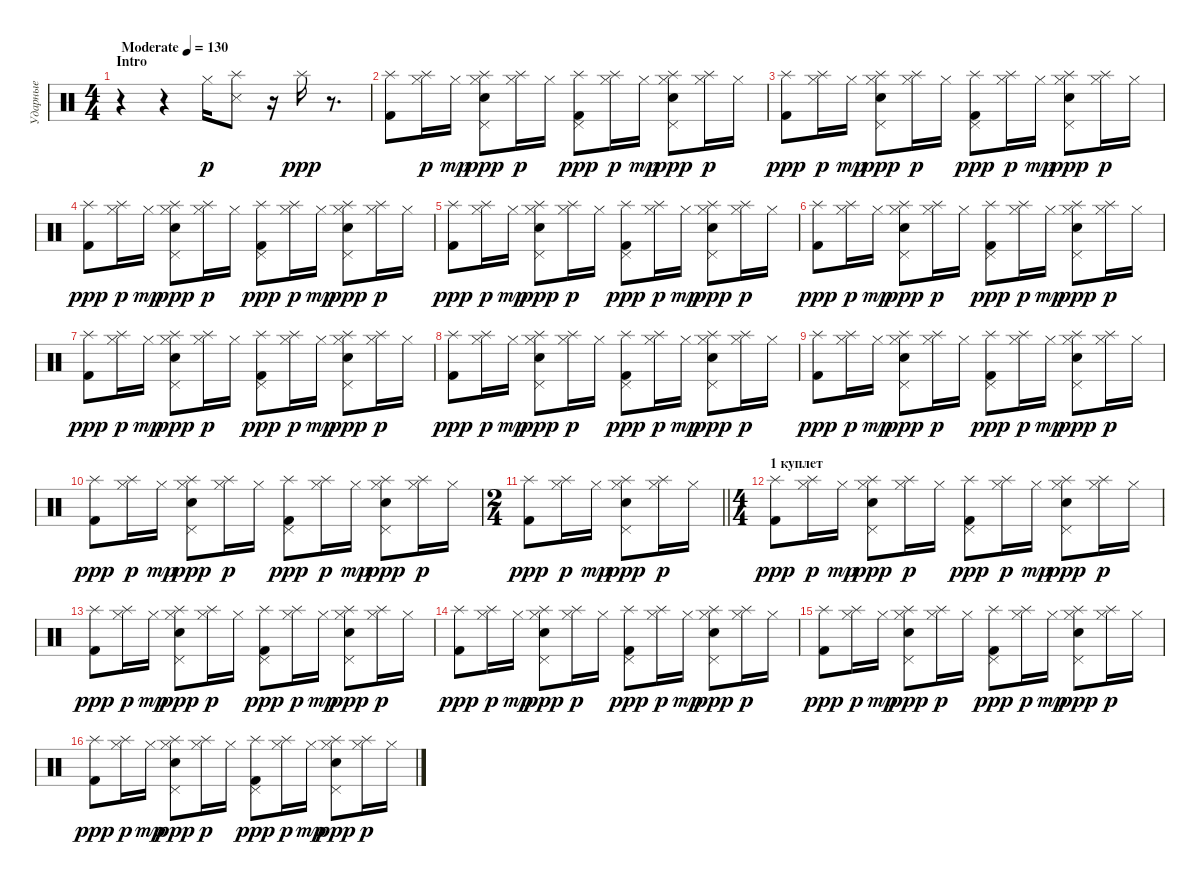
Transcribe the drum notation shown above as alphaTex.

\track ("Ударные" "Ударные") {instrument percussion bank 17}
\staff {score}
\articulation defaults
\ts (4 4)
\section ("" "Intro")
\tempo (130 "Moderate")
\clef neutral
\ks c
r.4{dy p} r.4 "Hi-Hat (closed)".16 ("Snare (side stick) 3" "Splash (hit)").8 r.16 "Splash (hit)".16{dy ppp} r.8{d} |
("Kick (hit) 2" "Splash (hit)").8 ("Hi-Hat (closed)" "Splash (hit)").16{dy p} "Hi-Hat (closed)".16{dy mp} ("Snare (hit) 2" "Pedal Hi-Hat (hit)" "Hi-Hat (closed)" "Splash (hit)").8{dy ppp} ("Hi-Hat (closed)" "Splash (hit)").16{dy p} "Hi-Hat (closed)".16 ("Kick (hit) 2" "Pedal Hi-Hat (hit)" "Splash (hit)").8{dy ppp} ("Hi-Hat (closed)" "Splash (hit)").16{dy p} "Hi-Hat (closed)".16{dy mp} ("Snare (hit) 2" "Pedal Hi-Hat (hit)" "Hi-Hat (closed)" "Splash (hit)").8{dy ppp} ("Hi-Hat (closed)" "Splash (hit)").16{dy p} "Hi-Hat (closed)".16 |
("Kick (hit) 2" "Splash (hit)").8{dy ppp} ("Hi-Hat (closed)" "Splash (hit)").16{dy p} "Hi-Hat (closed)".16{dy mp} ("Snare (hit) 2" "Pedal Hi-Hat (hit)" "Hi-Hat (closed)" "Splash (hit)").8{dy ppp} ("Hi-Hat (closed)" "Splash (hit)").16{dy p} "Hi-Hat (closed)".16 ("Kick (hit) 2" "Pedal Hi-Hat (hit)" "Splash (hit)").8{dy ppp} ("Hi-Hat (closed)" "Splash (hit)").16{dy p} "Hi-Hat (closed)".16{dy mp} ("Snare (hit) 2" "Pedal Hi-Hat (hit)" "Hi-Hat (closed)" "Splash (hit)").8{dy ppp} ("Hi-Hat (closed)" "Splash (hit)").16{dy p} "Hi-Hat (closed)".16 |
("Kick (hit) 2" "Splash (hit)").8{dy ppp} ("Hi-Hat (closed)" "Splash (hit)").16{dy p} "Hi-Hat (closed)".16{dy mp} ("Snare (hit) 2" "Pedal Hi-Hat (hit)" "Hi-Hat (closed)" "Splash (hit)").8{dy ppp} ("Hi-Hat (closed)" "Splash (hit)").16{dy p} "Hi-Hat (closed)".16 ("Kick (hit) 2" "Pedal Hi-Hat (hit)" "Splash (hit)").8{dy ppp} ("Hi-Hat (closed)" "Splash (hit)").16{dy p} "Hi-Hat (closed)".16{dy mp} ("Snare (hit) 2" "Pedal Hi-Hat (hit)" "Hi-Hat (closed)" "Splash (hit)").8{dy ppp} ("Hi-Hat (closed)" "Splash (hit)").16{dy p} "Hi-Hat (closed)".16 |
("Kick (hit) 2" "Splash (hit)").8{dy ppp} ("Hi-Hat (closed)" "Splash (hit)").16{dy p} "Hi-Hat (closed)".16{dy mp} ("Snare (hit) 2" "Pedal Hi-Hat (hit)" "Hi-Hat (closed)" "Splash (hit)").8{dy ppp} ("Hi-Hat (closed)" "Splash (hit)").16{dy p} "Hi-Hat (closed)".16 ("Kick (hit) 2" "Pedal Hi-Hat (hit)" "Splash (hit)").8{dy ppp} ("Hi-Hat (closed)" "Splash (hit)").16{dy p} "Hi-Hat (closed)".16{dy mp} ("Snare (hit) 2" "Pedal Hi-Hat (hit)" "Hi-Hat (closed)" "Splash (hit)").8{dy ppp} ("Hi-Hat (closed)" "Splash (hit)").16{dy p} "Hi-Hat (closed)".16 |
("Kick (hit) 2" "Splash (hit)").8{dy ppp} ("Hi-Hat (closed)" "Splash (hit)").16{dy p} "Hi-Hat (closed)".16{dy mp} ("Snare (hit) 2" "Pedal Hi-Hat (hit)" "Hi-Hat (closed)" "Splash (hit)").8{dy ppp} ("Hi-Hat (closed)" "Splash (hit)").16{dy p} "Hi-Hat (closed)".16 ("Kick (hit) 2" "Pedal Hi-Hat (hit)" "Splash (hit)").8{dy ppp} ("Hi-Hat (closed)" "Splash (hit)").16{dy p} "Hi-Hat (closed)".16{dy mp} ("Snare (hit) 2" "Pedal Hi-Hat (hit)" "Hi-Hat (closed)" "Splash (hit)").8{dy ppp} ("Hi-Hat (closed)" "Splash (hit)").16{dy p} "Hi-Hat (closed)".16 |
("Kick (hit) 2" "Splash (hit)").8{dy ppp} ("Hi-Hat (closed)" "Splash (hit)").16{dy p} "Hi-Hat (closed)".16{dy mp} ("Snare (hit) 2" "Pedal Hi-Hat (hit)" "Hi-Hat (closed)" "Splash (hit)").8{dy ppp} ("Hi-Hat (closed)" "Splash (hit)").16{dy p} "Hi-Hat (closed)".16 ("Kick (hit) 2" "Pedal Hi-Hat (hit)" "Splash (hit)").8{dy ppp} ("Hi-Hat (closed)" "Splash (hit)").16{dy p} "Hi-Hat (closed)".16{dy mp} ("Snare (hit) 2" "Pedal Hi-Hat (hit)" "Hi-Hat (closed)" "Splash (hit)").8{dy ppp} ("Hi-Hat (closed)" "Splash (hit)").16{dy p} "Hi-Hat (closed)".16 |
("Kick (hit) 2" "Splash (hit)").8{dy ppp} ("Hi-Hat (closed)" "Splash (hit)").16{dy p} "Hi-Hat (closed)".16{dy mp} ("Snare (hit) 2" "Pedal Hi-Hat (hit)" "Hi-Hat (closed)" "Splash (hit)").8{dy ppp} ("Hi-Hat (closed)" "Splash (hit)").16{dy p} "Hi-Hat (closed)".16 ("Kick (hit) 2" "Pedal Hi-Hat (hit)" "Splash (hit)").8{dy ppp} ("Hi-Hat (closed)" "Splash (hit)").16{dy p} "Hi-Hat (closed)".16{dy mp} ("Snare (hit) 2" "Pedal Hi-Hat (hit)" "Hi-Hat (closed)" "Splash (hit)").8{dy ppp} ("Hi-Hat (closed)" "Splash (hit)").16{dy p} "Hi-Hat (closed)".16 |
("Kick (hit) 2" "Splash (hit)").8{dy ppp} ("Hi-Hat (closed)" "Splash (hit)").16{dy p} "Hi-Hat (closed)".16{dy mp} ("Snare (hit) 2" "Pedal Hi-Hat (hit)" "Hi-Hat (closed)" "Splash (hit)").8{dy ppp} ("Hi-Hat (closed)" "Splash (hit)").16{dy p} "Hi-Hat (closed)".16 ("Kick (hit) 2" "Pedal Hi-Hat (hit)" "Splash (hit)").8{dy ppp} ("Hi-Hat (closed)" "Splash (hit)").16{dy p} "Hi-Hat (closed)".16{dy mp} ("Snare (hit) 2" "Pedal Hi-Hat (hit)" "Hi-Hat (closed)" "Splash (hit)").8{dy ppp} ("Hi-Hat (closed)" "Splash (hit)").16{dy p} "Hi-Hat (closed)".16 |
("Kick (hit) 2" "Splash (hit)").8{dy ppp} ("Hi-Hat (closed)" "Splash (hit)").16{dy p} "Hi-Hat (closed)".16{dy mp} ("Snare (hit) 2" "Pedal Hi-Hat (hit)" "Hi-Hat (closed)" "Splash (hit)").8{dy ppp} ("Hi-Hat (closed)" "Splash (hit)").16{dy p} "Hi-Hat (closed)".16 ("Kick (hit) 2" "Pedal Hi-Hat (hit)" "Splash (hit)").8{dy ppp} ("Hi-Hat (closed)" "Splash (hit)").16{dy p} "Hi-Hat (closed)".16{dy mp} ("Snare (hit) 2" "Pedal Hi-Hat (hit)" "Hi-Hat (closed)" "Splash (hit)").8{dy ppp} ("Hi-Hat (closed)" "Splash (hit)").16{dy p} "Hi-Hat (closed)".16 |
\ts (2 4)
\barLineRight lightlight
("Kick (hit) 2" "Splash (hit)").8{dy ppp} ("Hi-Hat (closed)" "Splash (hit)").16{dy p} "Hi-Hat (closed)".16{dy mp} ("Snare (hit) 2" "Pedal Hi-Hat (hit)" "Hi-Hat (closed)" "Splash (hit)").8{dy ppp} ("Hi-Hat (closed)" "Splash (hit)").16{dy p} "Hi-Hat (closed)".16 |
\ts (4 4)
\section ("" "1 куплет")
("Kick (hit) 2" "Splash (hit)").8{dy ppp} ("Hi-Hat (closed)" "Splash (hit)").16{dy p} "Hi-Hat (closed)".16{dy mp} ("Snare (hit) 2" "Pedal Hi-Hat (hit)" "Hi-Hat (closed)" "Splash (hit)").8{dy ppp} ("Hi-Hat (closed)" "Splash (hit)").16{dy p} "Hi-Hat (closed)".16 ("Kick (hit) 2" "Pedal Hi-Hat (hit)" "Splash (hit)").8{dy ppp} ("Hi-Hat (closed)" "Splash (hit)").16{dy p} "Hi-Hat (closed)".16{dy mp} ("Snare (hit) 2" "Pedal Hi-Hat (hit)" "Hi-Hat (closed)" "Splash (hit)").8{dy ppp} ("Hi-Hat (closed)" "Splash (hit)").16{dy p} "Hi-Hat (closed)".16 |
("Kick (hit) 2" "Splash (hit)").8{dy ppp} ("Hi-Hat (closed)" "Splash (hit)").16{dy p} "Hi-Hat (closed)".16{dy mp} ("Snare (hit) 2" "Pedal Hi-Hat (hit)" "Hi-Hat (closed)" "Splash (hit)").8{dy ppp} ("Hi-Hat (closed)" "Splash (hit)").16{dy p} "Hi-Hat (closed)".16 ("Kick (hit) 2" "Pedal Hi-Hat (hit)" "Splash (hit)").8{dy ppp} ("Hi-Hat (closed)" "Splash (hit)").16{dy p} "Hi-Hat (closed)".16{dy mp} ("Snare (hit) 2" "Pedal Hi-Hat (hit)" "Hi-Hat (closed)" "Splash (hit)").8{dy ppp} ("Hi-Hat (closed)" "Splash (hit)").16{dy p} "Hi-Hat (closed)".16 |
("Kick (hit) 2" "Splash (hit)").8{dy ppp} ("Hi-Hat (closed)" "Splash (hit)").16{dy p} "Hi-Hat (closed)".16{dy mp} ("Snare (hit) 2" "Pedal Hi-Hat (hit)" "Hi-Hat (closed)" "Splash (hit)").8{dy ppp} ("Hi-Hat (closed)" "Splash (hit)").16{dy p} "Hi-Hat (closed)".16 ("Kick (hit) 2" "Pedal Hi-Hat (hit)" "Splash (hit)").8{dy ppp} ("Hi-Hat (closed)" "Splash (hit)").16{dy p} "Hi-Hat (closed)".16{dy mp} ("Snare (hit) 2" "Pedal Hi-Hat (hit)" "Hi-Hat (closed)" "Splash (hit)").8{dy ppp} ("Hi-Hat (closed)" "Splash (hit)").16{dy p} "Hi-Hat (closed)".16 |
("Kick (hit) 2" "Splash (hit)").8{dy ppp} ("Hi-Hat (closed)" "Splash (hit)").16{dy p} "Hi-Hat (closed)".16{dy mp} ("Snare (hit) 2" "Pedal Hi-Hat (hit)" "Hi-Hat (closed)" "Splash (hit)").8{dy ppp} ("Hi-Hat (closed)" "Splash (hit)").16{dy p} "Hi-Hat (closed)".16 ("Kick (hit) 2" "Pedal Hi-Hat (hit)" "Splash (hit)").8{dy ppp} ("Hi-Hat (closed)" "Splash (hit)").16{dy p} "Hi-Hat (closed)".16{dy mp} ("Snare (hit) 2" "Pedal Hi-Hat (hit)" "Hi-Hat (closed)" "Splash (hit)").8{dy ppp} ("Hi-Hat (closed)" "Splash (hit)").16{dy p} "Hi-Hat (closed)".16 |
("Kick (hit) 2" "Splash (hit)").8{dy ppp} ("Hi-Hat (closed)" "Splash (hit)").16{dy p} "Hi-Hat (closed)".16{dy mp} ("Snare (hit) 2" "Pedal Hi-Hat (hit)" "Hi-Hat (closed)" "Splash (hit)").8{dy ppp} ("Hi-Hat (closed)" "Splash (hit)").16{dy p} "Hi-Hat (closed)".16 ("Kick (hit) 2" "Pedal Hi-Hat (hit)" "Splash (hit)").8{dy ppp} ("Hi-Hat (closed)" "Splash (hit)").16{dy p} "Hi-Hat (closed)".16{dy mp} ("Snare (hit) 2" "Pedal Hi-Hat (hit)" "Hi-Hat (closed)" "Splash (hit)").8{dy ppp} ("Hi-Hat (closed)" "Splash (hit)").16{dy p} "Hi-Hat (closed)".16
